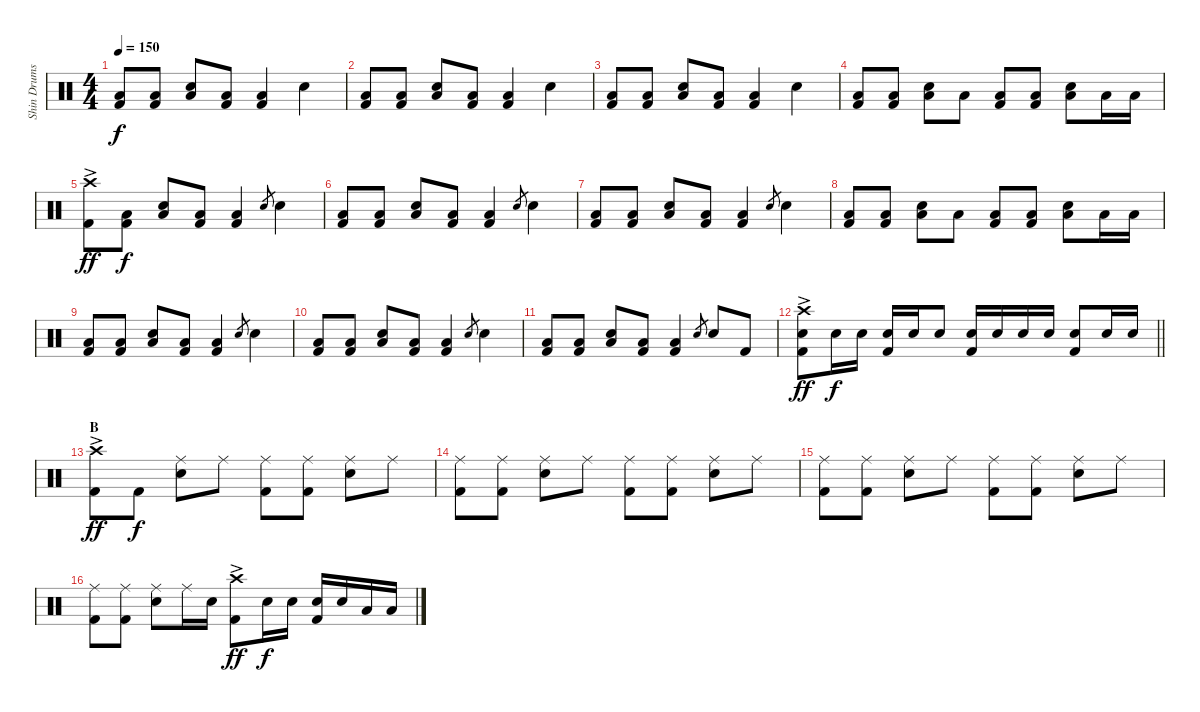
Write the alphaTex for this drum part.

\track ("Shin Drums" "Shin Drums") {instrument percussion}
\staff {score}
\articulation defaults
\ts (4 4)
\tempo 150
\clef neutral
\ks c
("Low Floor Tom (hit)" "Kick (hit) 2").8{dy f} ("Low Floor Tom (hit)" "Kick (hit) 2").8 ("Snare (hit) 2" "Low Floor Tom (hit)").8 ("Low Floor Tom (hit)" "Kick (hit) 2").8 ("Low Floor Tom (hit)" "Kick (hit) 2").4 "Snare (hit) 2".4 |
("Low Floor Tom (hit)" "Kick (hit) 2").8 ("Low Floor Tom (hit)" "Kick (hit) 2").8 ("Snare (hit) 2" "Low Floor Tom (hit)").8 ("Low Floor Tom (hit)" "Kick (hit) 2").8 ("Low Floor Tom (hit)" "Kick (hit) 2").4 "Snare (hit) 2".4 |
("Low Floor Tom (hit)" "Kick (hit) 2").8 ("Low Floor Tom (hit)" "Kick (hit) 2").8 ("Snare (hit) 2" "Low Floor Tom (hit)").8 ("Low Floor Tom (hit)" "Kick (hit) 2").8 ("Low Floor Tom (hit)" "Kick (hit) 2").4 "Snare (hit) 2".4 |
("Low Floor Tom (hit)" "Kick (hit) 2").8 ("Low Floor Tom (hit)" "Kick (hit) 2").8 ("Snare (hit) 2" "Low Floor Tom (hit)").8 "Low Floor Tom (hit)".8 ("Low Floor Tom (hit)" "Kick (hit) 2").8 ("Low Floor Tom (hit)" "Kick (hit) 2").8 ("Snare (hit) 2" "Low Floor Tom (hit)").8 "Low Floor Tom (hit)".16 "Low Floor Tom (hit)".16 |
("Crash high (hit)"{ac} "Kick (hit) 2").8{dy ff} ("Low Floor Tom (hit)" "Kick (hit) 2").8{dy f} ("Snare (hit) 2" "Low Floor Tom (hit)").8 ("Low Floor Tom (hit)" "Kick (hit) 2").8 ("Low Floor Tom (hit)" "Kick (hit) 2").4 "Snare (hit) 2".8{gr} "Snare (hit) 2".4 |
("Low Floor Tom (hit)" "Kick (hit) 2").8 ("Low Floor Tom (hit)" "Kick (hit) 2").8 ("Snare (hit) 2" "Low Floor Tom (hit)").8 ("Low Floor Tom (hit)" "Kick (hit) 2").8 ("Low Floor Tom (hit)" "Kick (hit) 2").4 "Snare (hit) 2".8{gr} "Snare (hit) 2".4 |
("Low Floor Tom (hit)" "Kick (hit) 2").8 ("Low Floor Tom (hit)" "Kick (hit) 2").8 ("Snare (hit) 2" "Low Floor Tom (hit)").8 ("Low Floor Tom (hit)" "Kick (hit) 2").8 ("Low Floor Tom (hit)" "Kick (hit) 2").4 "Snare (hit) 2".8{gr} "Snare (hit) 2".4 |
("Low Floor Tom (hit)" "Kick (hit) 2").8 ("Low Floor Tom (hit)" "Kick (hit) 2").8 ("Snare (hit) 2" "Low Floor Tom (hit)").8 "Low Floor Tom (hit)".8 ("Low Floor Tom (hit)" "Kick (hit) 2").8 ("Low Floor Tom (hit)" "Kick (hit) 2").8 ("Snare (hit) 2" "Low Floor Tom (hit)").8 "Low Floor Tom (hit)".16 "Low Floor Tom (hit)".16 |
("Low Floor Tom (hit)" "Kick (hit) 2").8 ("Low Floor Tom (hit)" "Kick (hit) 2").8 ("Snare (hit) 2" "Low Floor Tom (hit)").8 ("Low Floor Tom (hit)" "Kick (hit) 2").8 ("Low Floor Tom (hit)" "Kick (hit) 2").4 "Snare (hit) 2".8{gr} "Snare (hit) 2".4 |
("Low Floor Tom (hit)" "Kick (hit) 2").8 ("Low Floor Tom (hit)" "Kick (hit) 2").8 ("Snare (hit) 2" "Low Floor Tom (hit)").8 ("Low Floor Tom (hit)" "Kick (hit) 2").8 ("Low Floor Tom (hit)" "Kick (hit) 2").4 "Snare (hit) 2".8{gr} "Snare (hit) 2".4 |
("Low Floor Tom (hit)" "Kick (hit) 2").8 ("Low Floor Tom (hit)" "Kick (hit) 2").8 ("Snare (hit) 2" "Low Floor Tom (hit)").8 ("Low Floor Tom (hit)" "Kick (hit) 2").8 ("Low Floor Tom (hit)" "Kick (hit) 2").4 "Snare (hit) 2".8{gr} "Snare (hit) 2".8 "Kick (hit) 2".8 |
\barLineRight lightlight
("Crash high (hit)"{ac} "Snare (hit) 2" "Kick (hit) 2").8{dy ff} "Snare (hit) 2".16{dy f} "Snare (hit) 2".16 ("Snare (hit) 2" "Kick (hit) 2").16 "Snare (hit) 2".16 "Snare (hit) 2".8 ("Snare (hit) 2" "Kick (hit) 2").16 "Snare (hit) 2".16 "Snare (hit) 2".16 "Snare (hit) 2".16 ("Snare (hit) 2" "Kick (hit) 2").8 "Snare (hit) 2".16 "Snare (hit) 2".16 |
\section ("" "B")
("Crash high (hit)"{ac} "Kick (hit) 2").8{dy ff} "Kick (hit) 2".8{dy f} ("Ride (middle)" "Snare (hit) 2").8 "Ride (middle)".8 ("Ride (middle)" "Kick (hit) 2").8 ("Ride (middle)" "Kick (hit) 2").8 ("Ride (middle)" "Snare (hit) 2").8 "Ride (middle)".8 |
("Ride (middle)" "Kick (hit) 2").8 ("Ride (middle)" "Kick (hit) 2").8 ("Ride (middle)" "Snare (hit) 2").8 "Ride (middle)".8 ("Ride (middle)" "Kick (hit) 2").8 ("Ride (middle)" "Kick (hit) 2").8 ("Ride (middle)" "Snare (hit) 2").8 "Ride (middle)".8 |
("Ride (middle)" "Kick (hit) 2").8 ("Ride (middle)" "Kick (hit) 2").8 ("Ride (middle)" "Snare (hit) 2").8 "Ride (middle)".8 ("Ride (middle)" "Kick (hit) 2").8 ("Ride (middle)" "Kick (hit) 2").8 ("Ride (middle)" "Snare (hit) 2").8 "Ride (middle)".8 |
("Ride (middle)" "Kick (hit) 2").8 ("Ride (middle)" "Kick (hit) 2").8 ("Ride (middle)" "Snare (hit) 2").8 "Ride (middle)".16 "Snare (hit) 2".16 ("Crash high (hit)"{ac} "Kick (hit) 2").8{dy ff} "Snare (hit) 2".16{dy f} "Snare (hit) 2".16 ("Snare (hit) 2" "Kick (hit) 2").16 "Snare (hit) 2".16 "Low Floor Tom (hit)".16 "Low Floor Tom (hit)".16
